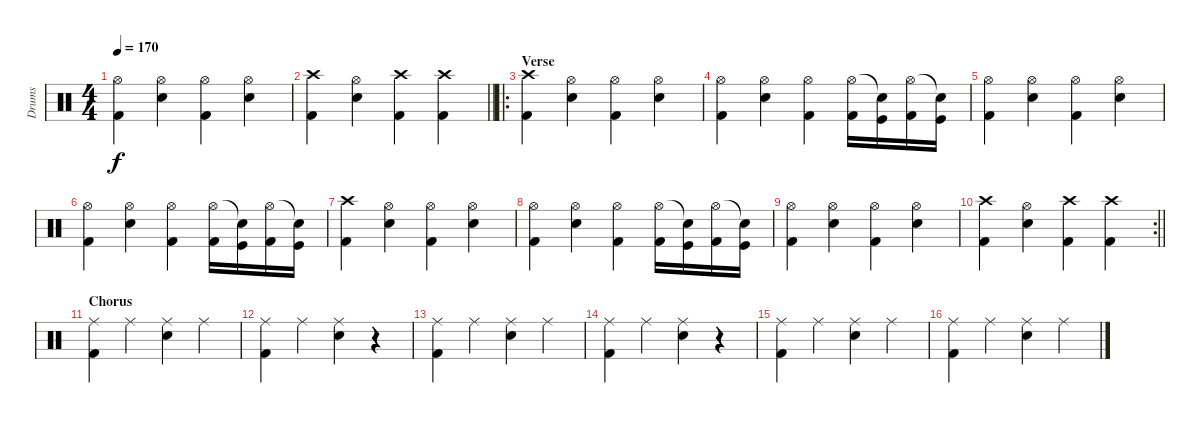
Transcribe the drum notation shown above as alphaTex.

\track ("Drums" "Drums") {instrument percussion}
\staff {score}
\articulation defaults
\ts (4 4)
\tempo 170
\clef neutral
\ks c
("Hi-Hat (open)" "Kick (hit) 2").4{dy f} ("Hi-Hat (open)" "Electric Snare (hit)").4 ("Hi-Hat (open)" "Kick (hit) 2").4 ("Hi-Hat (open)" "Electric Snare (hit)").4 |
\barLineRight lightlight
("Crash high (hit)" "Kick (hit) 2").4 ("Hi-Hat (open)" "Electric Snare (hit)").4 ("Crash high (hit)" "Kick (hit) 2").4 ("Crash high (hit)" "Kick (hit) 2").4 |
\ro
\section ("" "Verse")
("Crash high (hit)" "Kick (hit) 2").4 ("Hi-Hat (open)" "Electric Snare (hit)").4 ("Hi-Hat (open)" "Kick (hit) 2").4 ("Hi-Hat (open)" "Electric Snare (hit)").4 |
("Hi-Hat (open)" "Kick (hit) 2").4 ("Hi-Hat (open)" "Electric Snare (hit)").4 ("Hi-Hat (open)" "Kick (hit) 2").4 ("Hi-Hat (open)" "Kick (hit) 2").16 ("Snare (hit)"{t} "Kick (hit)").16 ("Hi-Hat (open)" "Kick (hit) 2").16 ("Snare (hit)"{t} "Kick (hit)").16 |
("Hi-Hat (open)" "Kick (hit) 2").4 ("Hi-Hat (open)" "Electric Snare (hit)").4 ("Hi-Hat (open)" "Kick (hit) 2").4 ("Hi-Hat (open)" "Electric Snare (hit)").4 |
("Hi-Hat (open)" "Kick (hit) 2").4 ("Hi-Hat (open)" "Electric Snare (hit)").4 ("Hi-Hat (open)" "Kick (hit) 2").4 ("Hi-Hat (open)" "Kick (hit) 2").16 ("Snare (hit)"{t} "Kick (hit)").16 ("Hi-Hat (open)" "Kick (hit) 2").16 ("Snare (hit)"{t} "Kick (hit)").16 |
("Crash high (hit)" "Kick (hit) 2").4 ("Hi-Hat (open)" "Electric Snare (hit)").4 ("Hi-Hat (open)" "Kick (hit) 2").4 ("Hi-Hat (open)" "Electric Snare (hit)").4 |
("Hi-Hat (open)" "Kick (hit) 2").4 ("Hi-Hat (open)" "Electric Snare (hit)").4 ("Hi-Hat (open)" "Kick (hit) 2").4 ("Hi-Hat (open)" "Kick (hit) 2").16 ("Snare (hit)"{t} "Kick (hit)").16 ("Hi-Hat (open)" "Kick (hit) 2").16 ("Snare (hit)"{t} "Kick (hit)").16 |
("Hi-Hat (open)" "Kick (hit) 2").4 ("Hi-Hat (open)" "Electric Snare (hit)").4 ("Hi-Hat (open)" "Kick (hit) 2").4 ("Hi-Hat (open)" "Electric Snare (hit)").4 |
\rc 2
\barLineRight lightlight
("Crash high (hit)" "Kick (hit) 2").4 ("Hi-Hat (open)" "Electric Snare (hit)").4 ("Crash high (hit)" "Kick (hit) 2").4 ("Crash high (hit)" "Kick (hit) 2").4 |
\section ("" "Chorus")
("Ride (middle)" "Kick (hit) 2").4 "Ride (middle)".4 ("Ride (middle)" "Electric Snare (hit)").4 "Ride (middle)".4 |
("Ride (middle)" "Kick (hit) 2").4 "Ride (middle)".4 ("Ride (middle)" "Electric Snare (hit)").4 r.4 |
("Ride (middle)" "Kick (hit) 2").4 "Ride (middle)".4 ("Ride (middle)" "Electric Snare (hit)").4 "Ride (middle)".4 |
("Ride (middle)" "Kick (hit) 2").4 "Ride (middle)".4 ("Ride (middle)" "Electric Snare (hit)").4 r.4 |
("Ride (middle)" "Kick (hit) 2").4 "Ride (middle)".4 ("Ride (middle)" "Electric Snare (hit)").4 "Ride (middle)".4 |
("Ride (middle)" "Kick (hit) 2").4 "Ride (middle)".4 ("Ride (middle)" "Electric Snare (hit)").4 "Ride (middle)".4
